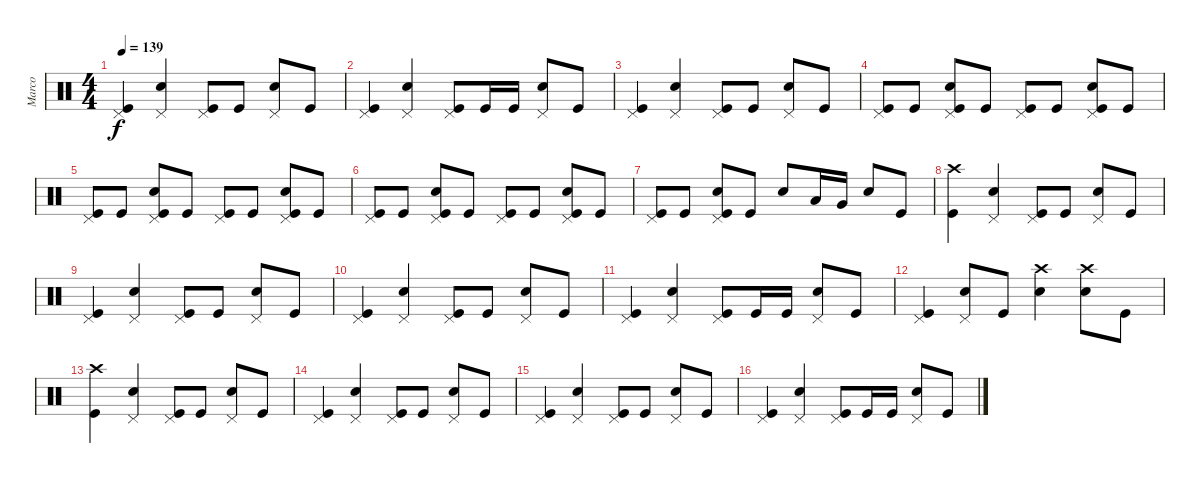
\track ("Marco" "Marco") {instrument percussion}
\staff {score}
\articulation defaults
\ts (4 4)
\tempo 139
\clef neutral
\ks c
("Pedal Hi-Hat (hit)" "Kick (hit)").4{dy f} ("Pedal Hi-Hat (hit)" "Snare (hit) 2").4 ("Pedal Hi-Hat (hit)" "Kick (hit)").8 "Kick (hit)".8 ("Pedal Hi-Hat (hit)" "Snare (hit) 2").8 "Kick (hit)".8 |
("Pedal Hi-Hat (hit)" "Kick (hit)").4 ("Pedal Hi-Hat (hit)" "Snare (hit) 2").4 ("Pedal Hi-Hat (hit)" "Kick (hit)").8 "Kick (hit)".16 "Kick (hit)".16 ("Pedal Hi-Hat (hit)" "Snare (hit) 2").8 "Kick (hit)".8 |
("Pedal Hi-Hat (hit)" "Kick (hit)").4 ("Pedal Hi-Hat (hit)" "Snare (hit) 2").4 ("Pedal Hi-Hat (hit)" "Kick (hit)").8 "Kick (hit)".8 ("Pedal Hi-Hat (hit)" "Snare (hit) 2").8 "Kick (hit)".8 |
("Pedal Hi-Hat (hit)" "Kick (hit)").8 "Kick (hit)".8 ("Pedal Hi-Hat (hit)" "Snare (hit) 2" "Kick (hit)").8 "Kick (hit)".8 ("Pedal Hi-Hat (hit)" "Kick (hit)").8 "Kick (hit)".8 ("Pedal Hi-Hat (hit)" "Snare (hit) 2" "Kick (hit)").8 "Kick (hit)".8 |
("Pedal Hi-Hat (hit)" "Kick (hit)").8 "Kick (hit)".8 ("Pedal Hi-Hat (hit)" "Snare (hit) 2" "Kick (hit)").8 "Kick (hit)".8 ("Pedal Hi-Hat (hit)" "Kick (hit)").8 "Kick (hit)".8 ("Pedal Hi-Hat (hit)" "Snare (hit) 2" "Kick (hit)").8 "Kick (hit)".8 |
("Pedal Hi-Hat (hit)" "Kick (hit)").8 "Kick (hit)".8 ("Pedal Hi-Hat (hit)" "Snare (hit) 2" "Kick (hit)").8 "Kick (hit)".8 ("Pedal Hi-Hat (hit)" "Kick (hit)").8 "Kick (hit)".8 ("Pedal Hi-Hat (hit)" "Snare (hit) 2" "Kick (hit)").8 "Kick (hit)".8 |
("Pedal Hi-Hat (hit)" "Kick (hit)").8 "Kick (hit)".8 ("Pedal Hi-Hat (hit)" "Snare (hit) 2" "Kick (hit)").8 "Kick (hit)".8 "Snare (hit) 2".8 "Low Tom (hit)".16 "Very Low Tom (hit)".16 "Snare (hit) 2".8 "Kick (hit)".8 |
("Crash high (hit)" "Kick (hit)").4 ("Pedal Hi-Hat (hit)" "Snare (hit) 2").4 ("Pedal Hi-Hat (hit)" "Kick (hit)").8 "Kick (hit)".8 ("Pedal Hi-Hat (hit)" "Snare (hit) 2").8 "Kick (hit)".8 |
("Pedal Hi-Hat (hit)" "Kick (hit)").4 ("Pedal Hi-Hat (hit)" "Snare (hit) 2").4 ("Pedal Hi-Hat (hit)" "Kick (hit)").8 "Kick (hit)".8 ("Pedal Hi-Hat (hit)" "Snare (hit) 2").8 "Kick (hit)".8 |
("Pedal Hi-Hat (hit)" "Kick (hit)").4 ("Pedal Hi-Hat (hit)" "Snare (hit) 2").4 ("Pedal Hi-Hat (hit)" "Kick (hit)").8 "Kick (hit)".8 ("Pedal Hi-Hat (hit)" "Snare (hit) 2").8 "Kick (hit)".8 |
("Pedal Hi-Hat (hit)" "Kick (hit)").4 ("Pedal Hi-Hat (hit)" "Snare (hit) 2").4 ("Pedal Hi-Hat (hit)" "Kick (hit)").8 "Kick (hit)".16 "Kick (hit)".16 ("Pedal Hi-Hat (hit)" "Snare (hit) 2").8 "Kick (hit)".8 |
("Pedal Hi-Hat (hit)" "Kick (hit)").4 ("Pedal Hi-Hat (hit)" "Snare (hit) 2").8 "Kick (hit)".8 ("Crash high (hit)" "Snare (hit) 2").4 ("Crash high (hit)" "Snare (hit) 2").8 "Kick (hit)".8 |
("Crash high (hit)" "Kick (hit)").4 ("Pedal Hi-Hat (hit)" "Snare (hit) 2").4 ("Pedal Hi-Hat (hit)" "Kick (hit)").8 "Kick (hit)".8 ("Pedal Hi-Hat (hit)" "Snare (hit) 2").8 "Kick (hit)".8 |
("Pedal Hi-Hat (hit)" "Kick (hit)").4 ("Pedal Hi-Hat (hit)" "Snare (hit) 2").4 ("Pedal Hi-Hat (hit)" "Kick (hit)").8 "Kick (hit)".8 ("Pedal Hi-Hat (hit)" "Snare (hit) 2").8 "Kick (hit)".8 |
("Pedal Hi-Hat (hit)" "Kick (hit)").4 ("Pedal Hi-Hat (hit)" "Snare (hit) 2").4 ("Pedal Hi-Hat (hit)" "Kick (hit)").8 "Kick (hit)".8 ("Pedal Hi-Hat (hit)" "Snare (hit) 2").8 "Kick (hit)".8 |
("Pedal Hi-Hat (hit)" "Kick (hit)").4 ("Pedal Hi-Hat (hit)" "Snare (hit) 2").4 ("Pedal Hi-Hat (hit)" "Kick (hit)").8 "Kick (hit)".16 "Kick (hit)".16 ("Pedal Hi-Hat (hit)" "Snare (hit) 2").8 "Kick (hit)".8
